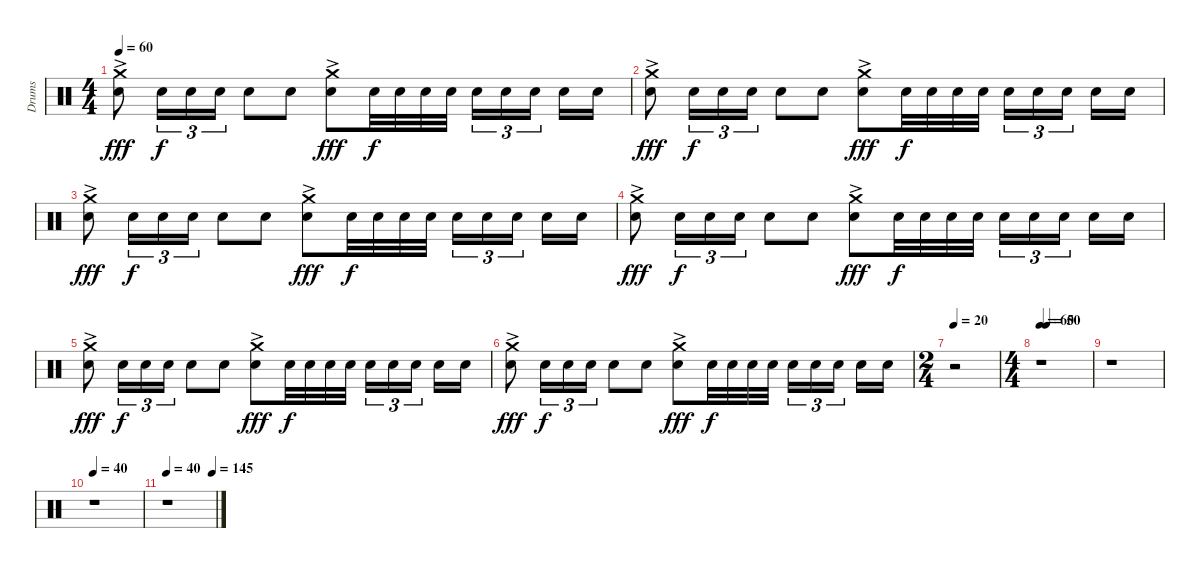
\track ("Drums" "Drums") {instrument percussion}
\staff {score}
\articulation defaults
\ts (4 4)
\tempo 60
\clef neutral
\ks c
("Crash medium (hit)"{ac} "Electric Snare (hit)"{ac}).8{dy fff} "Electric Snare (hit)".16{tu (3 2) dy f} "Electric Snare (hit)".16{tu (3 2)} "Electric Snare (hit)".16{tu (3 2)} "Electric Snare (hit)".8 "Electric Snare (hit)".8 ("Crash medium (hit)"{ac} "Electric Snare (hit)"{ac}).8{dy fff} "Electric Snare (hit)".32{dy f} "Electric Snare (hit)".32 "Electric Snare (hit)".32 "Electric Snare (hit)".32 "Electric Snare (hit)".16{tu (3 2)} "Electric Snare (hit)".16{tu (3 2)} "Electric Snare (hit)".16{tu (3 2)} "Electric Snare (hit)".16 "Electric Snare (hit)".16 |
("Crash medium (hit)"{ac} "Electric Snare (hit)"{ac}).8{dy fff} "Electric Snare (hit)".16{tu (3 2) dy f} "Electric Snare (hit)".16{tu (3 2)} "Electric Snare (hit)".16{tu (3 2)} "Electric Snare (hit)".8 "Electric Snare (hit)".8 ("Crash medium (hit)" "Electric Snare (hit)"{ac}).8{dy fff} "Electric Snare (hit)".32{dy f} "Electric Snare (hit)".32 "Electric Snare (hit)".32 "Electric Snare (hit)".32 "Electric Snare (hit)".16{tu (3 2)} "Electric Snare (hit)".16{tu (3 2)} "Electric Snare (hit)".16{tu (3 2)} "Electric Snare (hit)".16 "Electric Snare (hit)".16 |
("Crash medium (hit)"{ac} "Electric Snare (hit)"{ac}).8{dy fff volume 0} "Electric Snare (hit)".16{tu (3 2) dy f} "Electric Snare (hit)".16{tu (3 2)} "Electric Snare (hit)".16{tu (3 2)} "Electric Snare (hit)".8 "Electric Snare (hit)".8 ("Crash medium (hit)"{ac} "Electric Snare (hit)"{ac}).8{dy fff} "Electric Snare (hit)".32{dy f} "Electric Snare (hit)".32 "Electric Snare (hit)".32 "Electric Snare (hit)".32 "Electric Snare (hit)".16{tu (3 2)} "Electric Snare (hit)".16{tu (3 2)} "Electric Snare (hit)".16{tu (3 2)} "Electric Snare (hit)".16 "Electric Snare (hit)".16 |
("Crash medium (hit)"{ac} "Electric Snare (hit)"{ac}).8{dy fff} "Electric Snare (hit)".16{tu (3 2) dy f} "Electric Snare (hit)".16{tu (3 2)} "Electric Snare (hit)".16{tu (3 2)} "Electric Snare (hit)".8 "Electric Snare (hit)".8 ("Crash medium (hit)"{ac} "Electric Snare (hit)"{ac}).8{dy fff} "Electric Snare (hit)".32{dy f} "Electric Snare (hit)".32 "Electric Snare (hit)".32 "Electric Snare (hit)".32 "Electric Snare (hit)".16{tu (3 2)} "Electric Snare (hit)".16{tu (3 2)} "Electric Snare (hit)".16{tu (3 2)} "Electric Snare (hit)".16 "Electric Snare (hit)".16 |
("Crash medium (hit)"{ac} "Electric Snare (hit)"{ac}).8{dy fff} "Electric Snare (hit)".16{tu (3 2) dy f} "Electric Snare (hit)".16{tu (3 2)} "Electric Snare (hit)".16{tu (3 2)} "Electric Snare (hit)".8 "Electric Snare (hit)".8 ("Crash medium (hit)"{ac} "Electric Snare (hit)"{ac}).8{dy fff} "Electric Snare (hit)".32{dy f} "Electric Snare (hit)".32 "Electric Snare (hit)".32 "Electric Snare (hit)".32 "Electric Snare (hit)".16{tu (3 2)} "Electric Snare (hit)".16{tu (3 2)} "Electric Snare (hit)".16{tu (3 2)} "Electric Snare (hit)".16 "Electric Snare (hit)".16 |
("Crash medium (hit)" "Electric Snare (hit)"{ac}).8{dy fff} "Electric Snare (hit)".16{tu (3 2) dy f} "Electric Snare (hit)".16{tu (3 2)} "Electric Snare (hit)".16{tu (3 2)} "Electric Snare (hit)".8 "Electric Snare (hit)".8 ("Crash medium (hit)" "Electric Snare (hit)"{ac}).8{dy fff} "Electric Snare (hit)".32{dy f} "Electric Snare (hit)".32 "Electric Snare (hit)".32 "Electric Snare (hit)".32 "Electric Snare (hit)".16{tu (3 2)} "Electric Snare (hit)".16{tu (3 2)} "Electric Snare (hit)".16{tu (3 2)} "Electric Snare (hit)".16 "Electric Snare (hit)".16 |
\ts (2 4)
\tempo 20
r.2 |
\ts (4 4)
\tempo 60
\tempo (50 0.125)
r.1 |
r.1 |
\tempo 40
r.1 |
\tempo 40
\tempo (145 0.9375)
r.1
